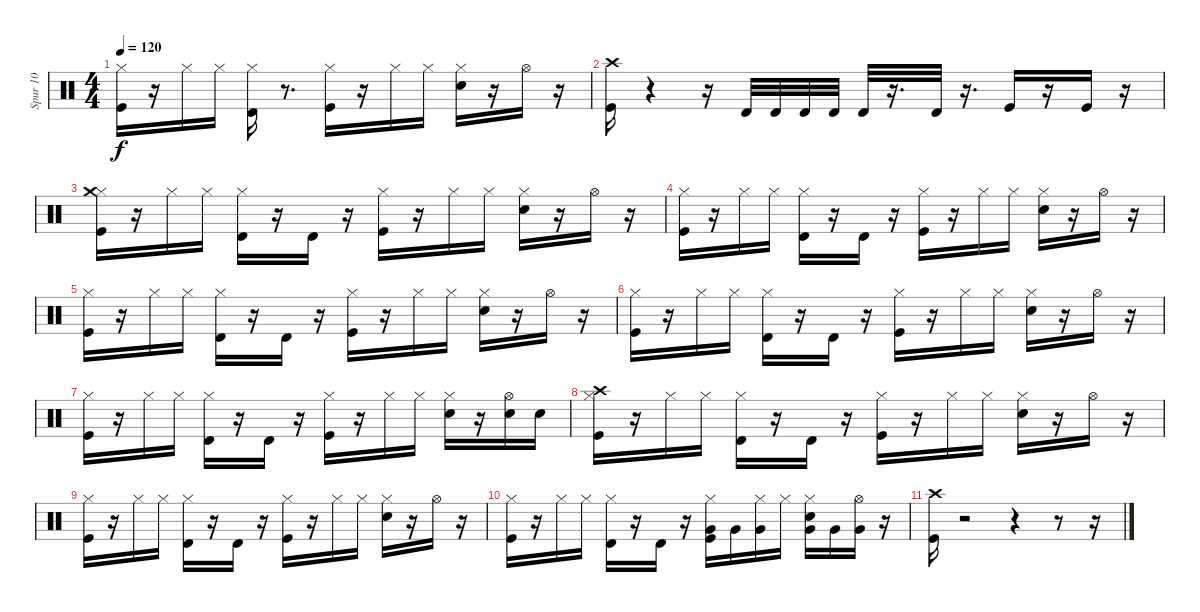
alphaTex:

\track ("Spur 10" "Spur 10") {instrument percussion}
\staff {score}
\articulation defaults
\ts (4 4)
\tempo 120
\clef neutral
\ks c
("Hi-Hat (closed)" "Kick (hit)").16{dy f} r.16 "Hi-Hat (closed)".16 "Hi-Hat (closed)".16 ("Hi-Hat (closed)" "Timbale high (hit)").16 r.8{d} ("Hi-Hat (closed)" "Kick (hit)").16 r.16 "Hi-Hat (closed)".16 "Hi-Hat (closed)".16 ("Hi-Hat (closed)" "Snare (hit) 2").16 r.16 "Hi-Hat (open)".16 r.16 |
("Crash high (hit)" "Kick (hit)").16 r.4 r.16 "Timbale high (hit)".32 "Timbale high (hit)".32 "Timbale high (hit)".32 "Timbale high (hit)".32 "Timbale high (hit)".32 r.16{d} "Timbale high (hit)".32 r.16{d} "Kick (hit)".16 r.16 "Kick (hit)".16 r.16 |
("Hi-Hat (closed)" "Kick (hit)" "Crash medium (hit)").16 r.16 "Hi-Hat (closed)".16 "Hi-Hat (closed)".16 ("Hi-Hat (closed)" "Timbale high (hit)").16 r.16 "Timbale high (hit)".16 r.16 ("Hi-Hat (closed)" "Kick (hit)").16 r.16 "Hi-Hat (closed)".16 "Hi-Hat (closed)".16 ("Hi-Hat (closed)" "Snare (hit) 2").16 r.16 "Hi-Hat (open)".16 r.16 |
("Hi-Hat (closed)" "Kick (hit)").16 r.16 "Hi-Hat (closed)".16 "Hi-Hat (closed)".16 ("Hi-Hat (closed)" "Timbale high (hit)").16 r.16 "Timbale high (hit)".16 r.16 ("Hi-Hat (closed)" "Kick (hit)").16 r.16 "Hi-Hat (closed)".16 "Hi-Hat (closed)".16 ("Hi-Hat (closed)" "Snare (hit) 2").16 r.16 "Hi-Hat (open)".16 r.16 |
("Hi-Hat (closed)" "Kick (hit)").16 r.16 "Hi-Hat (closed)".16 "Hi-Hat (closed)".16 ("Hi-Hat (closed)" "Timbale high (hit)").16 r.16 "Timbale high (hit)".16 r.16 ("Hi-Hat (closed)" "Kick (hit)").16 r.16 "Hi-Hat (closed)".16 "Hi-Hat (closed)".16 ("Hi-Hat (closed)" "Snare (hit) 2").16 r.16 "Hi-Hat (open)".16 r.16 |
("Hi-Hat (closed)" "Kick (hit)").16 r.16 "Hi-Hat (closed)".16 "Hi-Hat (closed)".16 ("Hi-Hat (closed)" "Timbale high (hit)").16 r.16 "Timbale high (hit)".16 r.16 ("Hi-Hat (closed)" "Kick (hit)").16 r.16 "Hi-Hat (closed)".16 "Hi-Hat (closed)".16 ("Hi-Hat (closed)" "Snare (hit) 2").16 r.16 "Hi-Hat (open)".16 r.16 |
("Hi-Hat (closed)" "Kick (hit)").16 r.16 "Hi-Hat (closed)".16 "Hi-Hat (closed)".16 ("Hi-Hat (closed)" "Timbale high (hit)").16 r.16 "Timbale high (hit)".16 r.16 ("Hi-Hat (closed)" "Kick (hit)").16 r.16 "Hi-Hat (closed)".16 "Hi-Hat (closed)".16 ("Hi-Hat (closed)" "Snare (hit) 2").16 r.16 ("Snare (hit) 2" "Hi-Hat (open)").16 "Snare (hit) 2".16 |
("Crash high (hit)" "Hi-Hat (closed)" "Kick (hit)").16 r.16 "Hi-Hat (closed)".16 "Hi-Hat (closed)".16 ("Hi-Hat (closed)" "Timbale high (hit)").16 r.16 "Timbale high (hit)".16 r.16 ("Hi-Hat (closed)" "Kick (hit)").16 r.16 "Hi-Hat (closed)".16 "Hi-Hat (closed)".16 ("Hi-Hat (closed)" "Snare (hit) 2").16 r.16 "Hi-Hat (open)".16 r.16 |
("Hi-Hat (closed)" "Kick (hit)").16 r.16 "Hi-Hat (closed)".16 "Hi-Hat (closed)".16 ("Hi-Hat (closed)" "Timbale high (hit)").16 r.16 "Timbale high (hit)".16 r.16 ("Hi-Hat (closed)" "Kick (hit)").16 r.16 "Hi-Hat (closed)".16 "Hi-Hat (closed)".16 ("Hi-Hat (closed)" "Snare (hit) 2").16 r.16 "Hi-Hat (open)".16 r.16 |
("Hi-Hat (closed)" "Kick (hit)").16 r.16 "Hi-Hat (closed)".16 "Hi-Hat (closed)".16 ("Hi-Hat (closed)" "Timbale high (hit)").16 r.16 "Timbale high (hit)".16 r.16 ("Very Low Tom (hit)" "Hi-Hat (closed)" "Kick (hit)").16 "Very Low Tom (hit)".16 ("Very Low Tom (hit)" "Hi-Hat (closed)").16 "Hi-Hat (closed)".16 ("Very Low Tom (hit)" "Hi-Hat (closed)" "Snare (hit) 2").16 "Very Low Tom (hit)".16 ("Very Low Tom (hit)" "Hi-Hat (open)").16 r.16 |
("Crash high (hit)" "Kick (hit)").16 r.2 r.4 r.8 r.16
